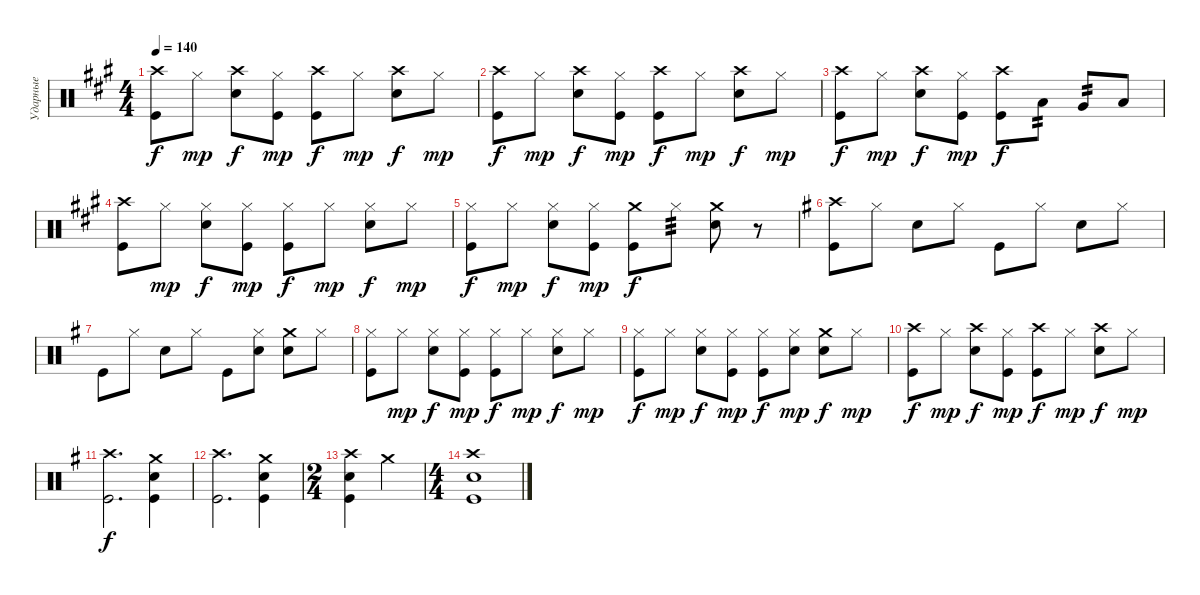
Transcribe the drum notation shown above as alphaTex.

\track ("Ударные" "Ударные") {instrument percussion}
\staff {score}
\articulation defaults
\ts (4 4)
\tempo 140
\clef neutral
\ks a
("Crash high (hit)" "Kick (hit)").8{dy f} "Hi-Hat (closed)".8{dy mp} ("Crash high (hit)" "Snare (hit) 2").8{dy f} ("Hi-Hat (closed)" "Kick (hit)").8{dy mp} ("Crash high (hit)" "Kick (hit)").8{dy f} "Hi-Hat (closed)".8{dy mp} ("Crash high (hit)" "Snare (hit) 2").8{dy f} "Hi-Hat (closed)".8{dy mp} |
("Crash high (hit)" "Kick (hit)").8{dy f} "Hi-Hat (closed)".8{dy mp} ("Crash high (hit)" "Snare (hit) 2").8{dy f} ("Hi-Hat (closed)" "Kick (hit)").8{dy mp} ("Crash high (hit)" "Kick (hit)").8{dy f} "Hi-Hat (closed)".8{dy mp} ("Crash high (hit)" "Snare (hit) 2").8{dy f} "Hi-Hat (closed)".8{dy mp} |
("Crash high (hit)" "Kick (hit)").8{dy f} "Hi-Hat (closed)".8{dy mp} ("Crash high (hit)" "Snare (hit) 2").8{dy f} ("Hi-Hat (closed)" "Kick (hit)").8{dy mp} ("Crash high (hit)" "Kick (hit)").8{dy f} "Low Tom (hit)".8{tp 2} "Very Low Tom (hit)".8{tp 2} "Low Floor Tom (hit)".8 |
("Crash high (hit)" "Kick (hit)").8 "Hi-Hat (closed)".8{dy mp} ("Hi-Hat (closed)" "Snare (hit) 2").8{dy f} ("Hi-Hat (closed)" "Kick (hit)").8{dy mp} ("Hi-Hat (closed)" "Kick (hit)").8{dy f} "Hi-Hat (closed)".8{dy mp} ("Hi-Hat (closed)" "Snare (hit) 2").8{dy f} "Hi-Hat (closed)".8{dy mp} |
("Hi-Hat (closed)" "Kick (hit)").8{dy f} "Hi-Hat (closed)".8{dy mp} ("Hi-Hat (closed)" "Snare (hit) 2").8{dy f} ("Hi-Hat (closed)" "Kick (hit)").8{dy mp} ("Crash medium (hit)" "Kick (hit)").8{dy f} "Hi-Hat (closed)".8{tp 3} ("Crash medium (hit)" "Snare (hit) 2").8 r.8 |
\ks eminor
("Crash high (hit)" "Kick (hit)").8 "Hi-Hat (closed)".8 "Snare (hit) 2".8 "Hi-Hat (closed)".8 "Kick (hit)".8 "Hi-Hat (closed)".8 "Snare (hit) 2".8 "Hi-Hat (closed)".8 |
"Kick (hit)".8 "Hi-Hat (closed)".8 "Snare (hit) 2".8 "Hi-Hat (closed)".8 "Kick (hit)".8 ("Hi-Hat (closed)" "Snare (hit) 2").8 ("Crash medium (hit)" "Snare (hit) 2").8 "Hi-Hat (closed)".8 |
("Hi-Hat (closed)" "Kick (hit)").8 "Hi-Hat (closed)".8{dy mp} ("Hi-Hat (closed)" "Snare (hit) 2").8{dy f} ("Hi-Hat (closed)" "Kick (hit)").8{dy mp} ("Hi-Hat (closed)" "Kick (hit)").8{dy f} "Hi-Hat (closed)".8{dy mp} ("Hi-Hat (closed)" "Snare (hit) 2").8{dy f} "Hi-Hat (closed)".8{dy mp} |
("Hi-Hat (closed)" "Kick (hit)").8{dy f} "Hi-Hat (closed)".8{dy mp} ("Hi-Hat (closed)" "Snare (hit) 2").8{dy f} ("Hi-Hat (closed)" "Kick (hit)").8{dy mp} ("Hi-Hat (closed)" "Kick (hit)").8{dy f} ("Hi-Hat (closed)" "Snare (hit) 2").8{dy mp} ("Crash medium (hit)" "Snare (hit) 2").8{dy f} "Hi-Hat (closed)".8{dy mp} |
("Crash high (hit)" "Kick (hit)").8{dy f} "Hi-Hat (closed)".8{dy mp} ("Crash high (hit)" "Snare (hit) 2").8{dy f} ("Hi-Hat (closed)" "Kick (hit)").8{dy mp} ("Crash high (hit)" "Kick (hit)").8{dy f} "Hi-Hat (closed)".8{dy mp} ("Crash high (hit)" "Snare (hit) 2").8{dy f} "Hi-Hat (closed)".8{dy mp} |
("Crash high (hit)" "Kick (hit)").2{d dy f} ("Crash medium (hit)" "Snare (hit) 2" "Kick (hit)").4 |
("Crash high (hit)" "Kick (hit)").2{d} ("Crash medium (hit)" "Snare (hit) 2" "Kick (hit)").4 |
\ts (2 4)
("Crash high (hit)" "Snare (hit) 2" "Kick (hit)").4 "Crash medium (hit)".4 |
\ts (4 4)
("Crash high (hit)" "Snare (hit) 2" "Kick (hit)").1
